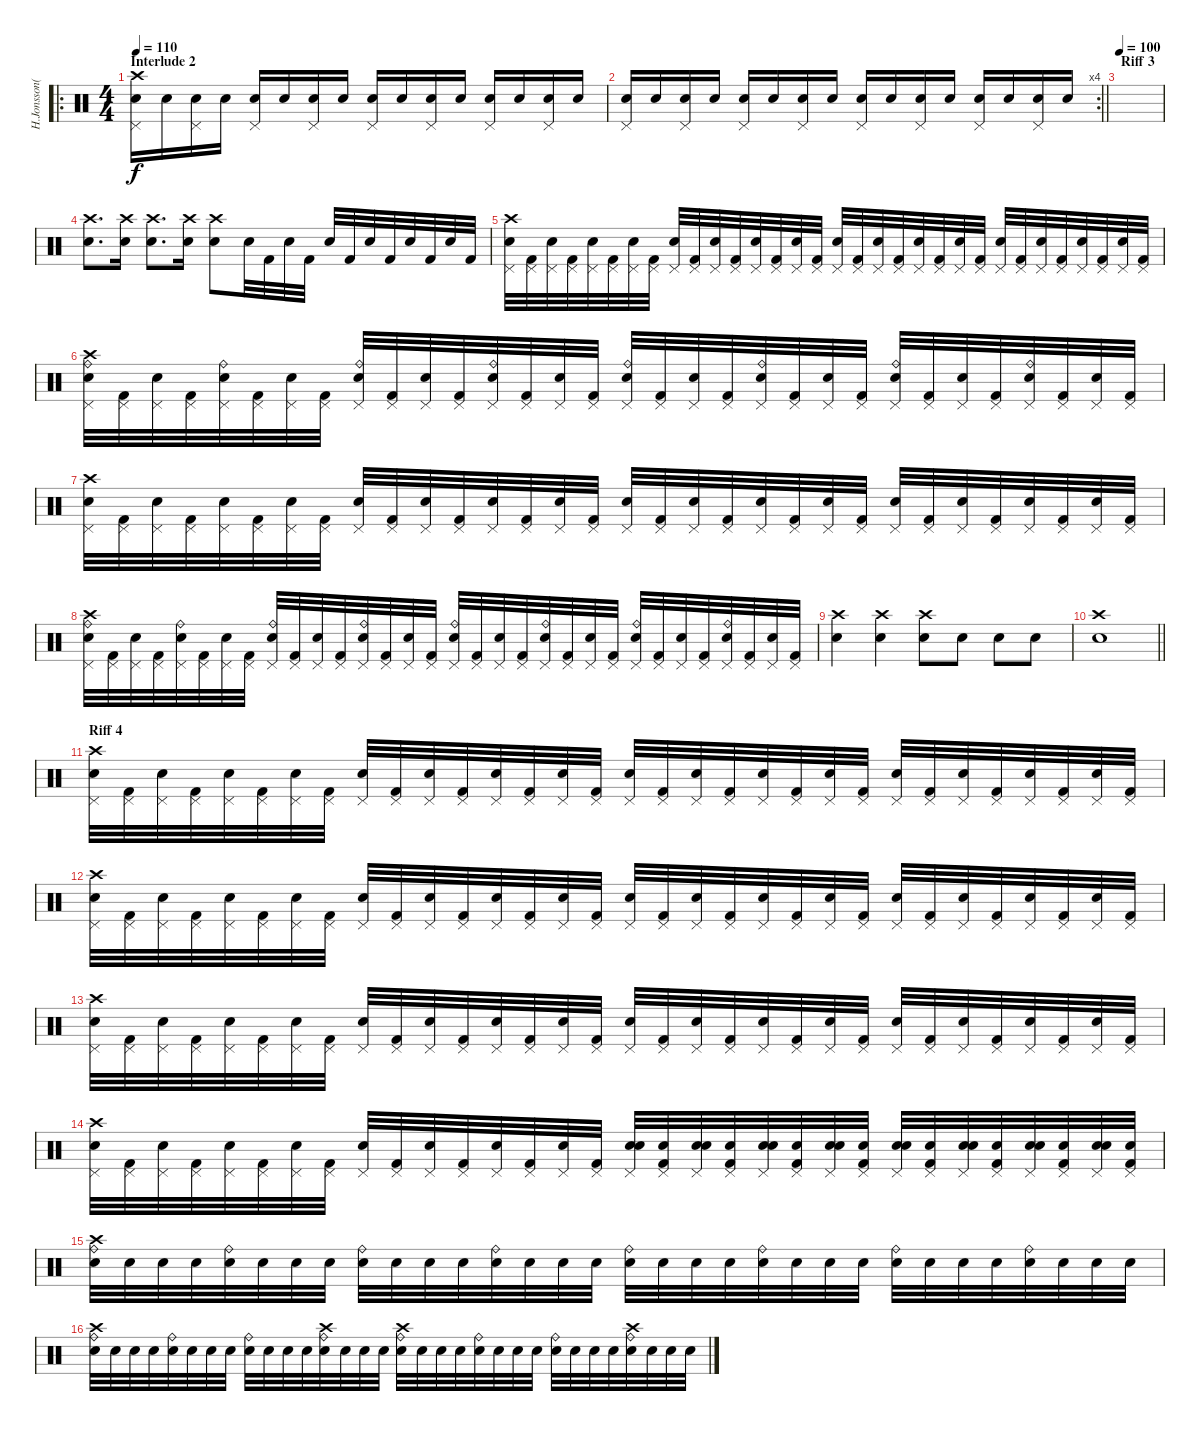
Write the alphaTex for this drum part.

\track ("H.Jonsson(Drums)" "H.Jonsson(") {instrument percussion}
\staff {score}
\articulation defaults
\ro
\ts (4 4)
\section ("" "Interlude 2")
\tempo 130
\tempo 110
\clef neutral
\ks c
("Crash high (hit)" "Pedal Hi-Hat (hit)" "Snare (hit) 2").16{dy f} "Electric Snare (hit)".16 ("Pedal Hi-Hat (hit)" "Snare (hit) 2").16 "Electric Snare (hit)".16 ("Pedal Hi-Hat (hit)" "Snare (hit) 2").16 "Electric Snare (hit)".16 ("Pedal Hi-Hat (hit)" "Snare (hit) 2").16 "Electric Snare (hit)".16 ("Pedal Hi-Hat (hit)" "Snare (hit) 2").16 "Electric Snare (hit)".16 ("Pedal Hi-Hat (hit)" "Snare (hit) 2").16 "Electric Snare (hit)".16 ("Pedal Hi-Hat (hit)" "Snare (hit) 2").16 "Electric Snare (hit)".16 ("Pedal Hi-Hat (hit)" "Snare (hit) 2").16 "Electric Snare (hit)".16 |
\rc 4
\barLineRight lightlight
("Pedal Hi-Hat (hit)" "Snare (hit) 2").16 "Electric Snare (hit)".16 ("Pedal Hi-Hat (hit)" "Snare (hit) 2").16 "Electric Snare (hit)".16 ("Pedal Hi-Hat (hit)" "Snare (hit) 2").16 "Electric Snare (hit)".16 ("Pedal Hi-Hat (hit)" "Snare (hit) 2").16 "Electric Snare (hit)".16 ("Pedal Hi-Hat (hit)" "Snare (hit) 2").16 "Electric Snare (hit)".16 ("Pedal Hi-Hat (hit)" "Snare (hit) 2").16 "Electric Snare (hit)".16 ("Pedal Hi-Hat (hit)" "Snare (hit) 2").16 "Electric Snare (hit)".16 ("Pedal Hi-Hat (hit)" "Snare (hit) 2").16 "Electric Snare (hit)".16 |
\section ("" "Riff 3")
\tempo 100
|
("Crash high (hit)" "Snare (hit) 2").8{d} ("Crash high (hit)" "Snare (hit) 2").16 ("Crash high (hit)" "Snare (hit) 2").8{d} ("Crash high (hit)" "Snare (hit) 2").16 ("Crash high (hit)" "Snare (hit) 2").8 "Snare (hit) 2".32 "Kick (hit) 2".32 "Snare (hit) 2".32 "Kick (hit) 2".32 "Snare (hit) 2".32 "Kick (hit) 2".32 "Snare (hit) 2".32 "Kick (hit) 2".32 "Snare (hit) 2".32 "Kick (hit) 2".32 "Snare (hit) 2".32 "Kick (hit) 2".32 |
("Pedal Hi-Hat (hit)" "Crash high (hit)" "Electric Snare (hit)").32 ("Pedal Hi-Hat (hit)" "Kick (hit) 2").32 ("Pedal Hi-Hat (hit)" "Electric Snare (hit)").32 ("Pedal Hi-Hat (hit)" "Kick (hit) 2").32 ("Pedal Hi-Hat (hit)" "Electric Snare (hit)").32 ("Pedal Hi-Hat (hit)" "Kick (hit) 2").32 ("Pedal Hi-Hat (hit)" "Electric Snare (hit)").32 ("Pedal Hi-Hat (hit)" "Kick (hit) 2").32 ("Pedal Hi-Hat (hit)" "Electric Snare (hit)").32 ("Pedal Hi-Hat (hit)" "Kick (hit) 2").32 ("Pedal Hi-Hat (hit)" "Electric Snare (hit)").32 ("Pedal Hi-Hat (hit)" "Kick (hit) 2").32 ("Pedal Hi-Hat (hit)" "Electric Snare (hit)").32 ("Pedal Hi-Hat (hit)" "Kick (hit) 2").32 ("Pedal Hi-Hat (hit)" "Electric Snare (hit)").32 ("Pedal Hi-Hat (hit)" "Kick (hit) 2").32 ("Pedal Hi-Hat (hit)" "Electric Snare (hit)").32 ("Pedal Hi-Hat (hit)" "Kick (hit) 2").32 ("Pedal Hi-Hat (hit)" "Electric Snare (hit)").32 ("Pedal Hi-Hat (hit)" "Kick (hit) 2").32 ("Pedal Hi-Hat (hit)" "Electric Snare (hit)").32 ("Pedal Hi-Hat (hit)" "Kick (hit) 2").32 ("Pedal Hi-Hat (hit)" "Electric Snare (hit)").32 ("Pedal Hi-Hat (hit)" "Kick (hit) 2").32 ("Pedal Hi-Hat (hit)" "Electric Snare (hit)").32 ("Pedal Hi-Hat (hit)" "Kick (hit) 2").32 ("Pedal Hi-Hat (hit)" "Electric Snare (hit)").32 ("Pedal Hi-Hat (hit)" "Kick (hit) 2").32 ("Pedal Hi-Hat (hit)" "Electric Snare (hit)").32 ("Pedal Hi-Hat (hit)" "Kick (hit) 2").32 ("Pedal Hi-Hat (hit)" "Electric Snare (hit)").32 ("Pedal Hi-Hat (hit)" "Kick (hit) 2").32 |
("Ride (bell)" "Pedal Hi-Hat (hit)" "Crash high (hit)" "Electric Snare (hit)").32 ("Pedal Hi-Hat (hit)" "Kick (hit) 2").32 ("Pedal Hi-Hat (hit)" "Electric Snare (hit)").32 ("Pedal Hi-Hat (hit)" "Kick (hit) 2").32 ("Ride (bell)" "Pedal Hi-Hat (hit)" "Electric Snare (hit)").32 ("Pedal Hi-Hat (hit)" "Kick (hit) 2").32 ("Pedal Hi-Hat (hit)" "Electric Snare (hit)").32 ("Pedal Hi-Hat (hit)" "Kick (hit) 2").32 ("Ride (bell)" "Pedal Hi-Hat (hit)" "Electric Snare (hit)").32 ("Pedal Hi-Hat (hit)" "Kick (hit) 2").32 ("Pedal Hi-Hat (hit)" "Electric Snare (hit)").32 ("Pedal Hi-Hat (hit)" "Kick (hit) 2").32 ("Ride (bell)" "Pedal Hi-Hat (hit)" "Electric Snare (hit)").32 ("Pedal Hi-Hat (hit)" "Kick (hit) 2").32 ("Pedal Hi-Hat (hit)" "Electric Snare (hit)").32 ("Pedal Hi-Hat (hit)" "Kick (hit) 2").32 ("Ride (bell)" "Pedal Hi-Hat (hit)" "Electric Snare (hit)").32 ("Pedal Hi-Hat (hit)" "Kick (hit) 2").32 ("Pedal Hi-Hat (hit)" "Electric Snare (hit)").32 ("Pedal Hi-Hat (hit)" "Kick (hit) 2").32 ("Ride (bell)" "Pedal Hi-Hat (hit)" "Electric Snare (hit)").32 ("Pedal Hi-Hat (hit)" "Kick (hit) 2").32 ("Pedal Hi-Hat (hit)" "Electric Snare (hit)").32 ("Pedal Hi-Hat (hit)" "Kick (hit) 2").32 ("Ride (bell)" "Pedal Hi-Hat (hit)" "Electric Snare (hit)").32 ("Pedal Hi-Hat (hit)" "Kick (hit) 2").32 ("Pedal Hi-Hat (hit)" "Electric Snare (hit)").32 ("Pedal Hi-Hat (hit)" "Kick (hit) 2").32 ("Ride (bell)" "Pedal Hi-Hat (hit)" "Electric Snare (hit)").32 ("Pedal Hi-Hat (hit)" "Kick (hit) 2").32 ("Pedal Hi-Hat (hit)" "Electric Snare (hit)").32 ("Pedal Hi-Hat (hit)" "Kick (hit) 2").32 |
("Pedal Hi-Hat (hit)" "Crash high (hit)" "Electric Snare (hit)").32 ("Pedal Hi-Hat (hit)" "Kick (hit) 2").32 ("Pedal Hi-Hat (hit)" "Electric Snare (hit)").32 ("Pedal Hi-Hat (hit)" "Kick (hit) 2").32 ("Pedal Hi-Hat (hit)" "Electric Snare (hit)").32 ("Pedal Hi-Hat (hit)" "Kick (hit) 2").32 ("Pedal Hi-Hat (hit)" "Electric Snare (hit)").32 ("Pedal Hi-Hat (hit)" "Kick (hit) 2").32 ("Pedal Hi-Hat (hit)" "Electric Snare (hit)").32 ("Pedal Hi-Hat (hit)" "Kick (hit) 2").32 ("Pedal Hi-Hat (hit)" "Electric Snare (hit)").32 ("Pedal Hi-Hat (hit)" "Kick (hit) 2").32 ("Pedal Hi-Hat (hit)" "Electric Snare (hit)").32 ("Pedal Hi-Hat (hit)" "Kick (hit) 2").32 ("Pedal Hi-Hat (hit)" "Electric Snare (hit)").32 ("Pedal Hi-Hat (hit)" "Kick (hit) 2").32 ("Pedal Hi-Hat (hit)" "Electric Snare (hit)").32 ("Pedal Hi-Hat (hit)" "Kick (hit) 2").32 ("Pedal Hi-Hat (hit)" "Electric Snare (hit)").32 ("Pedal Hi-Hat (hit)" "Kick (hit) 2").32 ("Pedal Hi-Hat (hit)" "Electric Snare (hit)").32 ("Pedal Hi-Hat (hit)" "Kick (hit) 2").32 ("Pedal Hi-Hat (hit)" "Electric Snare (hit)").32 ("Pedal Hi-Hat (hit)" "Kick (hit) 2").32 ("Pedal Hi-Hat (hit)" "Electric Snare (hit)").32 ("Pedal Hi-Hat (hit)" "Kick (hit) 2").32 ("Pedal Hi-Hat (hit)" "Electric Snare (hit)").32 ("Pedal Hi-Hat (hit)" "Kick (hit) 2").32 ("Pedal Hi-Hat (hit)" "Electric Snare (hit)").32 ("Pedal Hi-Hat (hit)" "Kick (hit) 2").32 ("Pedal Hi-Hat (hit)" "Electric Snare (hit)").32 ("Pedal Hi-Hat (hit)" "Kick (hit) 2").32 |
("Ride (bell)" "Pedal Hi-Hat (hit)" "Crash high (hit)" "Electric Snare (hit)").32 ("Pedal Hi-Hat (hit)" "Kick (hit) 2").32 ("Pedal Hi-Hat (hit)" "Electric Snare (hit)").32 ("Pedal Hi-Hat (hit)" "Kick (hit) 2").32 ("Ride (bell)" "Pedal Hi-Hat (hit)" "Electric Snare (hit)").32 ("Pedal Hi-Hat (hit)" "Kick (hit) 2").32 ("Pedal Hi-Hat (hit)" "Electric Snare (hit)").32 ("Pedal Hi-Hat (hit)" "Kick (hit) 2").32 ("Ride (bell)" "Pedal Hi-Hat (hit)" "Electric Snare (hit)").32 ("Pedal Hi-Hat (hit)" "Kick (hit) 2").32 ("Pedal Hi-Hat (hit)" "Electric Snare (hit)").32 ("Pedal Hi-Hat (hit)" "Kick (hit) 2").32 ("Ride (bell)" "Pedal Hi-Hat (hit)" "Electric Snare (hit)").32 ("Pedal Hi-Hat (hit)" "Kick (hit) 2").32 ("Pedal Hi-Hat (hit)" "Electric Snare (hit)").32 ("Pedal Hi-Hat (hit)" "Kick (hit) 2").32 ("Ride (bell)" "Pedal Hi-Hat (hit)" "Electric Snare (hit)").32 ("Pedal Hi-Hat (hit)" "Kick (hit) 2").32 ("Pedal Hi-Hat (hit)" "Electric Snare (hit)").32 ("Pedal Hi-Hat (hit)" "Kick (hit) 2").32 ("Ride (bell)" "Pedal Hi-Hat (hit)" "Electric Snare (hit)").32 ("Pedal Hi-Hat (hit)" "Kick (hit) 2").32 ("Pedal Hi-Hat (hit)" "Electric Snare (hit)").32 ("Pedal Hi-Hat (hit)" "Kick (hit) 2").32 ("Ride (bell)" "Pedal Hi-Hat (hit)" "Electric Snare (hit)").32 ("Pedal Hi-Hat (hit)" "Kick (hit) 2").32 ("Pedal Hi-Hat (hit)" "Electric Snare (hit)").32 ("Pedal Hi-Hat (hit)" "Kick (hit) 2").32 ("Ride (bell)" "Pedal Hi-Hat (hit)" "Electric Snare (hit)").32 ("Pedal Hi-Hat (hit)" "Kick (hit) 2").32 ("Pedal Hi-Hat (hit)" "Electric Snare (hit)").32 ("Pedal Hi-Hat (hit)" "Kick (hit) 2").32 |
("Crash high (hit)" "Snare (hit) 2").4 ("Crash high (hit)" "Snare (hit) 2").4 ("Crash high (hit)" "Snare (hit) 2").8 "Snare (hit) 2".8 "Snare (hit) 2".8 "Snare (hit) 2".8 |
\barLineRight lightlight
("Snare (hit) 2" "Crash high (hit)").1 |
\section ("" "Riff 4")
("Pedal Hi-Hat (hit)" "Crash high (hit)" "Electric Snare (hit)").32 ("Pedal Hi-Hat (hit)" "Kick (hit) 2").32 ("Pedal Hi-Hat (hit)" "Electric Snare (hit)").32 ("Pedal Hi-Hat (hit)" "Kick (hit) 2").32 ("Pedal Hi-Hat (hit)" "Electric Snare (hit)").32 ("Pedal Hi-Hat (hit)" "Kick (hit) 2").32 ("Pedal Hi-Hat (hit)" "Electric Snare (hit)").32 ("Pedal Hi-Hat (hit)" "Kick (hit) 2").32 ("Pedal Hi-Hat (hit)" "Electric Snare (hit)").32 ("Pedal Hi-Hat (hit)" "Kick (hit) 2").32 ("Pedal Hi-Hat (hit)" "Electric Snare (hit)").32 ("Pedal Hi-Hat (hit)" "Kick (hit) 2").32 ("Pedal Hi-Hat (hit)" "Electric Snare (hit)").32 ("Pedal Hi-Hat (hit)" "Kick (hit) 2").32 ("Pedal Hi-Hat (hit)" "Electric Snare (hit)").32 ("Pedal Hi-Hat (hit)" "Kick (hit) 2").32 ("Pedal Hi-Hat (hit)" "Electric Snare (hit)").32 ("Pedal Hi-Hat (hit)" "Kick (hit) 2").32 ("Pedal Hi-Hat (hit)" "Electric Snare (hit)").32 ("Pedal Hi-Hat (hit)" "Kick (hit) 2").32 ("Pedal Hi-Hat (hit)" "Electric Snare (hit)").32 ("Pedal Hi-Hat (hit)" "Kick (hit) 2").32 ("Pedal Hi-Hat (hit)" "Electric Snare (hit)").32 ("Pedal Hi-Hat (hit)" "Kick (hit) 2").32 ("Pedal Hi-Hat (hit)" "Electric Snare (hit)").32 ("Pedal Hi-Hat (hit)" "Kick (hit) 2").32 ("Pedal Hi-Hat (hit)" "Electric Snare (hit)").32 ("Pedal Hi-Hat (hit)" "Kick (hit) 2").32 ("Pedal Hi-Hat (hit)" "Electric Snare (hit)").32 ("Pedal Hi-Hat (hit)" "Kick (hit) 2").32 ("Pedal Hi-Hat (hit)" "Electric Snare (hit)").32 ("Pedal Hi-Hat (hit)" "Kick (hit) 2").32 |
("Pedal Hi-Hat (hit)" "Crash high (hit)" "Electric Snare (hit)").32 ("Pedal Hi-Hat (hit)" "Kick (hit) 2").32 ("Pedal Hi-Hat (hit)" "Electric Snare (hit)").32 ("Pedal Hi-Hat (hit)" "Kick (hit) 2").32 ("Pedal Hi-Hat (hit)" "Electric Snare (hit)").32 ("Pedal Hi-Hat (hit)" "Kick (hit) 2").32 ("Pedal Hi-Hat (hit)" "Electric Snare (hit)").32 ("Pedal Hi-Hat (hit)" "Kick (hit) 2").32 ("Pedal Hi-Hat (hit)" "Electric Snare (hit)").32 ("Pedal Hi-Hat (hit)" "Kick (hit) 2").32 ("Pedal Hi-Hat (hit)" "Electric Snare (hit)").32 ("Pedal Hi-Hat (hit)" "Kick (hit) 2").32 ("Pedal Hi-Hat (hit)" "Electric Snare (hit)").32 ("Pedal Hi-Hat (hit)" "Kick (hit) 2").32 ("Pedal Hi-Hat (hit)" "Electric Snare (hit)").32 ("Pedal Hi-Hat (hit)" "Kick (hit) 2").32 ("Pedal Hi-Hat (hit)" "Electric Snare (hit)").32 ("Pedal Hi-Hat (hit)" "Kick (hit) 2").32 ("Pedal Hi-Hat (hit)" "Electric Snare (hit)").32 ("Pedal Hi-Hat (hit)" "Kick (hit) 2").32 ("Pedal Hi-Hat (hit)" "Electric Snare (hit)").32 ("Pedal Hi-Hat (hit)" "Kick (hit) 2").32 ("Pedal Hi-Hat (hit)" "Electric Snare (hit)").32 ("Pedal Hi-Hat (hit)" "Kick (hit) 2").32 ("Pedal Hi-Hat (hit)" "Electric Snare (hit)").32 ("Pedal Hi-Hat (hit)" "Kick (hit) 2").32 ("Pedal Hi-Hat (hit)" "Electric Snare (hit)").32 ("Pedal Hi-Hat (hit)" "Kick (hit) 2").32 ("Pedal Hi-Hat (hit)" "Electric Snare (hit)").32 ("Pedal Hi-Hat (hit)" "Kick (hit) 2").32 ("Pedal Hi-Hat (hit)" "Electric Snare (hit)").32 ("Pedal Hi-Hat (hit)" "Kick (hit) 2").32 |
("Pedal Hi-Hat (hit)" "Crash high (hit)" "Electric Snare (hit)").32 ("Pedal Hi-Hat (hit)" "Kick (hit) 2").32 ("Pedal Hi-Hat (hit)" "Electric Snare (hit)").32 ("Pedal Hi-Hat (hit)" "Kick (hit) 2").32 ("Pedal Hi-Hat (hit)" "Electric Snare (hit)").32 ("Pedal Hi-Hat (hit)" "Kick (hit) 2").32 ("Pedal Hi-Hat (hit)" "Electric Snare (hit)").32 ("Pedal Hi-Hat (hit)" "Kick (hit) 2").32 ("Pedal Hi-Hat (hit)" "Electric Snare (hit)").32 ("Pedal Hi-Hat (hit)" "Kick (hit) 2").32 ("Pedal Hi-Hat (hit)" "Electric Snare (hit)").32 ("Pedal Hi-Hat (hit)" "Kick (hit) 2").32 ("Pedal Hi-Hat (hit)" "Electric Snare (hit)").32 ("Pedal Hi-Hat (hit)" "Kick (hit) 2").32 ("Pedal Hi-Hat (hit)" "Electric Snare (hit)").32 ("Pedal Hi-Hat (hit)" "Kick (hit) 2").32 ("Pedal Hi-Hat (hit)" "Electric Snare (hit)").32 ("Pedal Hi-Hat (hit)" "Kick (hit) 2").32 ("Pedal Hi-Hat (hit)" "Electric Snare (hit)").32 ("Pedal Hi-Hat (hit)" "Kick (hit) 2").32 ("Pedal Hi-Hat (hit)" "Electric Snare (hit)").32 ("Pedal Hi-Hat (hit)" "Kick (hit) 2").32 ("Pedal Hi-Hat (hit)" "Electric Snare (hit)").32 ("Pedal Hi-Hat (hit)" "Kick (hit) 2").32 ("Pedal Hi-Hat (hit)" "Electric Snare (hit)").32 ("Pedal Hi-Hat (hit)" "Kick (hit) 2").32 ("Pedal Hi-Hat (hit)" "Electric Snare (hit)").32 ("Pedal Hi-Hat (hit)" "Kick (hit) 2").32 ("Pedal Hi-Hat (hit)" "Electric Snare (hit)").32 ("Pedal Hi-Hat (hit)" "Kick (hit) 2").32 ("Pedal Hi-Hat (hit)" "Electric Snare (hit)").32 ("Pedal Hi-Hat (hit)" "Kick (hit) 2").32 |
("Pedal Hi-Hat (hit)" "Crash high (hit)" "Electric Snare (hit)").32 ("Pedal Hi-Hat (hit)" "Kick (hit) 2").32 ("Pedal Hi-Hat (hit)" "Electric Snare (hit)").32 ("Pedal Hi-Hat (hit)" "Kick (hit) 2").32 ("Pedal Hi-Hat (hit)" "Electric Snare (hit)").32 ("Pedal Hi-Hat (hit)" "Kick (hit) 2").32 ("Pedal Hi-Hat (hit)" "Electric Snare (hit)").32 ("Pedal Hi-Hat (hit)" "Kick (hit) 2").32 ("Pedal Hi-Hat (hit)" "Electric Snare (hit)").32 ("Pedal Hi-Hat (hit)" "Kick (hit) 2").32 ("Pedal Hi-Hat (hit)" "Electric Snare (hit)").32 ("Pedal Hi-Hat (hit)" "Kick (hit) 2").32 ("Pedal Hi-Hat (hit)" "Electric Snare (hit)").32 ("Pedal Hi-Hat (hit)" "Kick (hit) 2").32 ("Pedal Hi-Hat (hit)" "Electric Snare (hit)").32 ("Pedal Hi-Hat (hit)" "Kick (hit) 2").32 ("Pedal Hi-Hat (hit)" "Snare (hit) 2" "Electric Snare (hit)").32 ("Pedal Hi-Hat (hit)" "Snare (hit) 2" "Kick (hit) 2").32 ("Pedal Hi-Hat (hit)" "Snare (hit) 2" "Electric Snare (hit)").32 ("Pedal Hi-Hat (hit)" "Snare (hit) 2" "Kick (hit) 2").32 ("Pedal Hi-Hat (hit)" "Snare (hit) 2" "Electric Snare (hit)").32 ("Pedal Hi-Hat (hit)" "Snare (hit) 2" "Kick (hit) 2").32 ("Pedal Hi-Hat (hit)" "Snare (hit) 2" "Electric Snare (hit)").32 ("Pedal Hi-Hat (hit)" "Snare (hit) 2" "Kick (hit) 2").32 ("Pedal Hi-Hat (hit)" "Snare (hit) 2" "Electric Snare (hit)").32 ("Pedal Hi-Hat (hit)" "Snare (hit) 2" "Kick (hit) 2").32 ("Pedal Hi-Hat (hit)" "Snare (hit) 2" "Electric Snare (hit)").32 ("Pedal Hi-Hat (hit)" "Snare (hit) 2" "Kick (hit) 2").32 ("Pedal Hi-Hat (hit)" "Snare (hit) 2" "Electric Snare (hit)").32 ("Pedal Hi-Hat (hit)" "Snare (hit) 2" "Kick (hit) 2").32 ("Pedal Hi-Hat (hit)" "Snare (hit) 2" "Electric Snare (hit)").32 ("Pedal Hi-Hat (hit)" "Snare (hit) 2" "Kick (hit) 2").32 |
("Crash high (hit)" "Ride (bell)" "Snare (hit) 2").32 "Electric Snare (hit)".32 "Snare (hit) 2".32 "Electric Snare (hit)".32 ("Ride (bell)" "Snare (hit) 2").32 "Electric Snare (hit)".32 "Snare (hit) 2".32 "Electric Snare (hit)".32 ("Ride (bell)" "Snare (hit) 2").32 "Electric Snare (hit)".32 "Snare (hit) 2".32 "Electric Snare (hit)".32 ("Ride (bell)" "Snare (hit) 2").32 "Electric Snare (hit)".32 "Snare (hit) 2".32 "Electric Snare (hit)".32 ("Ride (bell)" "Snare (hit) 2").32 "Electric Snare (hit)".32 "Snare (hit) 2".32 "Electric Snare (hit)".32 ("Ride (bell)" "Snare (hit) 2").32 "Electric Snare (hit)".32 "Snare (hit) 2".32 "Electric Snare (hit)".32 ("Ride (bell)" "Snare (hit) 2").32 "Electric Snare (hit)".32 "Snare (hit) 2".32 "Electric Snare (hit)".32 ("Ride (bell)" "Snare (hit) 2").32 "Electric Snare (hit)".32 "Snare (hit) 2".32 "Electric Snare (hit)".32 |
("Crash high (hit)" "Ride (bell)" "Snare (hit) 2").32 "Electric Snare (hit)".32 "Snare (hit) 2".32 "Electric Snare (hit)".32 ("Ride (bell)" "Snare (hit) 2").32 "Electric Snare (hit)".32 "Snare (hit) 2".32 "Electric Snare (hit)".32 ("Ride (bell)" "Snare (hit) 2").32 "Electric Snare (hit)".32 "Snare (hit) 2".32 "Electric Snare (hit)".32 ("Crash high (hit)" "Ride (bell)" "Snare (hit) 2").32 "Electric Snare (hit)".32 "Snare (hit) 2".32 "Electric Snare (hit)".32 ("Crash high (hit)" "Ride (bell)" "Snare (hit) 2").32 "Electric Snare (hit)".32 "Snare (hit) 2".32 "Electric Snare (hit)".32 ("Ride (bell)" "Snare (hit) 2").32 "Electric Snare (hit)".32 "Snare (hit) 2".32 "Electric Snare (hit)".32 ("Ride (bell)" "Snare (hit) 2").32 "Electric Snare (hit)".32 "Snare (hit) 2".32 "Electric Snare (hit)".32 ("Crash high (hit)" "Ride (bell)" "Snare (hit) 2").32 "Electric Snare (hit)".32 "Snare (hit) 2".32 "Electric Snare (hit)".32
